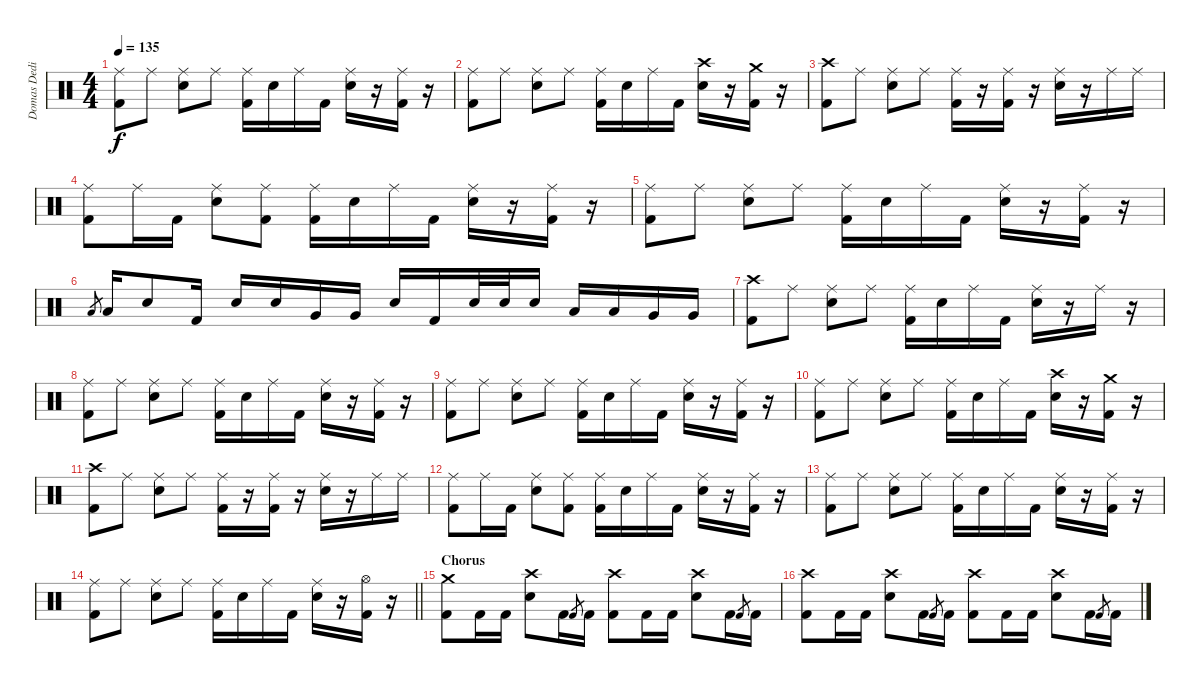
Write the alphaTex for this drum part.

\track ("Domas Dedinas" "Domas Dedi") {instrument percussion}
\staff {score}
\articulation defaults
\ts (4 4)
\tempo 135
\clef neutral
\ks c
("Ride (middle)" "Kick (hit) 2").8{dy f} "Ride (middle)".8 ("Ride (middle)" "Snare (hit) 2").8 "Ride (middle)".8 ("Ride (middle)" "Kick (hit) 2").16 "Snare (hit) 2".16 "Ride (middle)".16 "Kick (hit) 2".16 ("Ride (middle)" "Snare (hit) 2").16 r.16 ("Ride (middle)" "Kick (hit) 2").16 r.16 |
("Ride (middle)" "Kick (hit) 2").8 "Ride (middle)".8 ("Ride (middle)" "Snare (hit) 2").8 "Ride (middle)".8 ("Ride (middle)" "Kick (hit) 2").16 "Snare (hit) 2".16 "Ride (middle)".16 "Kick (hit) 2".16 ("Crash high (hit)" "Snare (hit) 2").16 r.16 ("Crash medium (hit)" "Kick (hit) 2").16 r.16 |
("Crash high (hit)" "Kick (hit) 2").8 "Ride (middle)".8 ("Ride (middle)" "Snare (hit) 2").8 "Ride (middle)".8 ("Ride (middle)" "Kick (hit) 2").16 r.16 ("Ride (middle)" "Kick (hit) 2").16 r.16 ("Ride (middle)" "Snare (hit) 2").16 r.16 "Ride (middle)".16 "Ride (middle)".16 |
("Ride (middle)" "Kick (hit) 2").8 "Ride (middle)".16 "Kick (hit) 2".16 ("Ride (middle)" "Snare (hit) 2").8 ("Ride (middle)" "Kick (hit) 2").8 ("Ride (middle)" "Kick (hit) 2").16 "Snare (hit) 2".16 "Ride (middle)".16 "Kick (hit) 2".16 ("Ride (middle)" "Snare (hit) 2").16 r.16 ("Ride (middle)" "Kick (hit) 2").16 r.16 |
("Ride (middle)" "Kick (hit) 2").8 "Ride (middle)".8 ("Ride (middle)" "Snare (hit) 2").8 "Ride (middle)".8 ("Ride (middle)" "Kick (hit) 2").16 "Snare (hit) 2".16 "Ride (middle)".16 "Kick (hit) 2".16 ("Ride (middle)" "Snare (hit) 2").16 r.16 ("Ride (middle)" "Kick (hit) 2").16 r.16 |
"Low Tom (hit)".8{gr} "Low Tom (hit)".16 "Snare (hit) 2".8 "Kick (hit) 2".16 "Snare (hit) 2".16 "Snare (hit) 2".16 "Very Low Tom (hit)".16 "Very Low Tom (hit)".16 "Snare (hit) 2".16 "Kick (hit) 2".16 "Snare (hit) 2".32 "Snare (hit) 2".32 "Snare (hit) 2".16 "Low Tom (hit)".16 "Low Tom (hit)".16 "Very Low Tom (hit)".16 "Very Low Tom (hit)".16 |
("Crash high (hit)" "Kick (hit) 2").8 "Ride (middle)".8 ("Ride (middle)" "Snare (hit) 2").8 "Ride (middle)".8 ("Ride (middle)" "Kick (hit) 2").16 "Snare (hit) 2".16 "Ride (middle)".16 "Kick (hit) 2".16 ("Ride (middle)" "Snare (hit) 2").16 r.16 "Ride (middle)".16 r.16 |
("Ride (middle)" "Kick (hit) 2").8 "Ride (middle)".8 ("Ride (middle)" "Snare (hit) 2").8 "Ride (middle)".8 ("Ride (middle)" "Kick (hit) 2").16 "Snare (hit) 2".16 "Ride (middle)".16 "Kick (hit) 2".16 ("Ride (middle)" "Snare (hit) 2").16 r.16 ("Ride (middle)" "Kick (hit) 2").16 r.16 |
("Ride (middle)" "Kick (hit) 2").8 "Ride (middle)".8 ("Ride (middle)" "Snare (hit) 2").8 "Ride (middle)".8 ("Ride (middle)" "Kick (hit) 2").16 "Snare (hit) 2".16 "Ride (middle)".16 "Kick (hit) 2".16 ("Ride (middle)" "Snare (hit) 2").16 r.16 ("Ride (middle)" "Kick (hit) 2").16 r.16 |
("Ride (middle)" "Kick (hit) 2").8 "Ride (middle)".8 ("Ride (middle)" "Snare (hit) 2").8 "Ride (middle)".8 ("Ride (middle)" "Kick (hit) 2").16 "Snare (hit) 2".16 "Ride (middle)".16 "Kick (hit) 2".16 ("Crash high (hit)" "Snare (hit) 2").16 r.16 ("Crash medium (hit)" "Kick (hit) 2").16 r.16 |
("Crash high (hit)" "Kick (hit) 2").8 "Ride (middle)".8 ("Ride (middle)" "Snare (hit) 2").8 "Ride (middle)".8 ("Ride (middle)" "Kick (hit) 2").16 r.16 ("Ride (middle)" "Kick (hit) 2").16 r.16 ("Ride (middle)" "Snare (hit) 2").16 r.16 "Ride (middle)".16 "Ride (middle)".16 |
("Ride (middle)" "Kick (hit) 2").8 "Ride (middle)".16 "Kick (hit) 2".16 ("Ride (middle)" "Snare (hit) 2").8 ("Ride (middle)" "Kick (hit) 2").8 ("Ride (middle)" "Kick (hit) 2").16 "Snare (hit) 2".16 "Ride (middle)".16 "Kick (hit) 2".16 ("Ride (middle)" "Snare (hit) 2").16 r.16 ("Ride (middle)" "Kick (hit) 2").16 r.16 |
("Ride (middle)" "Kick (hit) 2").8 "Ride (middle)".8 ("Ride (middle)" "Snare (hit) 2").8 "Ride (middle)".8 ("Ride (middle)" "Kick (hit) 2").16 "Snare (hit) 2".16 "Ride (middle)".16 "Kick (hit) 2".16 ("Ride (middle)" "Snare (hit) 2").16 r.16 ("Ride (middle)" "Kick (hit) 2").16 r.16 |
\barLineRight lightlight
("Ride (middle)" "Kick (hit) 2").8 "Ride (middle)".8 ("Ride (middle)" "Snare (hit) 2").8 "Ride (middle)".8 ("Ride (middle)" "Kick (hit) 2").16 "Snare (hit) 2".16 "Ride (middle)".16 "Kick (hit) 2".16 ("Ride (middle)" "Snare (hit) 2").16 r.16 ("Hi-Hat (open)" "Kick (hit) 2").16 r.16 |
\section ("" "Chorus")
("Crash medium (hit)" "Kick (hit) 2").8 "Kick (hit) 2".16 "Kick (hit) 2".16 ("Crash high (hit)" "Snare (hit) 2").8 "Kick (hit) 2".16 "Kick (hit) 2".8{gr} "Kick (hit) 2".16 ("Crash high (hit)" "Kick (hit) 2").8 "Kick (hit) 2".16 "Kick (hit) 2".16 ("Crash high (hit)" "Snare (hit) 2").8 "Kick (hit) 2".16 "Kick (hit) 2".8{gr} "Kick (hit) 2".16 |
("Crash high (hit)" "Kick (hit) 2").8 "Kick (hit) 2".16 "Kick (hit) 2".16 ("Crash high (hit)" "Snare (hit) 2").8 "Kick (hit) 2".16 "Kick (hit) 2".8{gr} "Kick (hit) 2".16 ("Crash high (hit)" "Kick (hit) 2").8 "Kick (hit) 2".16 "Kick (hit) 2".16 ("Crash high (hit)" "Snare (hit) 2").8 "Kick (hit) 2".16 "Kick (hit) 2".8{gr} "Kick (hit) 2".16
